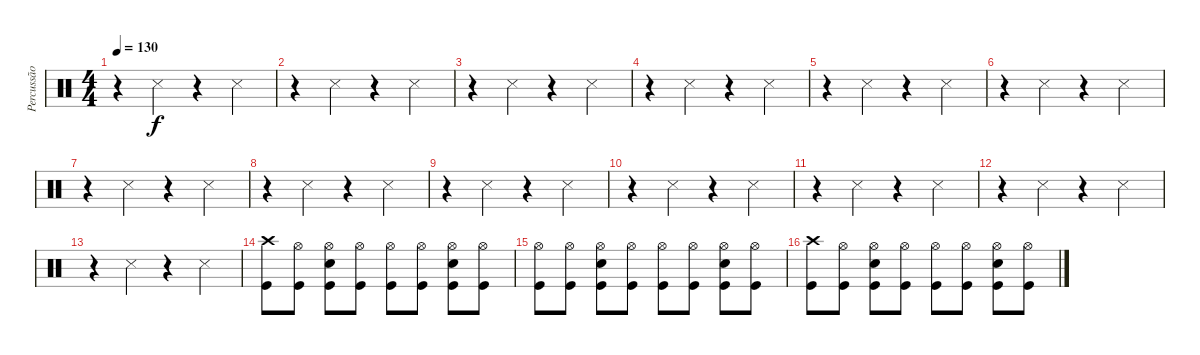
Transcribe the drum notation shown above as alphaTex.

\track ("Percussão" "Percussão") {instrument percussion}
\staff {score}
\articulation defaults
\ts (4 4)
\tempo 130
\clef neutral
\ks c
r.4{dy f} "Snare (side stick) 3".4 r.4 "Snare (side stick) 3".4 |
r.4 "Snare (side stick) 3".4 r.4 "Snare (side stick) 3".4 |
r.4 "Snare (side stick) 3".4 r.4 "Snare (side stick) 3".4 |
r.4 "Snare (side stick) 3".4 r.4 "Snare (side stick) 3".4 |
r.4 "Snare (side stick) 3".4 r.4 "Snare (side stick) 3".4 |
r.4 "Snare (side stick) 3".4 r.4 "Snare (side stick) 3".4 |
r.4 "Snare (side stick) 3".4 r.4 "Snare (side stick) 3".4 |
r.4 "Snare (side stick) 3".4 r.4 "Snare (side stick) 3".4 |
r.4 "Snare (side stick) 3".4 r.4 "Snare (side stick) 3".4 |
r.4 "Snare (side stick) 3".4 r.4 "Snare (side stick) 3".4 |
r.4 "Snare (side stick) 3".4 r.4 "Snare (side stick) 3".4 |
r.4 "Snare (side stick) 3".4 r.4 "Snare (side stick) 3".4 |
r.4 "Snare (side stick) 3".4 r.4 "Snare (side stick) 3".4 |
("Crash high (hit)" "Kick (hit)").8 ("Hi-Hat (open)" "Kick (hit)").8 ("Hi-Hat (open)" "Snare (hit) 2" "Kick (hit)").8 ("Hi-Hat (open)" "Kick (hit)").8 ("Hi-Hat (open)" "Kick (hit)").8 ("Hi-Hat (open)" "Kick (hit)").8 ("Hi-Hat (open)" "Snare (hit) 2" "Kick (hit)").8 ("Hi-Hat (open)" "Kick (hit)").8 |
("Hi-Hat (open)" "Kick (hit)").8 ("Hi-Hat (open)" "Kick (hit)").8 ("Hi-Hat (open)" "Snare (hit) 2" "Kick (hit)").8 ("Hi-Hat (open)" "Kick (hit)").8 ("Hi-Hat (open)" "Kick (hit)").8 ("Hi-Hat (open)" "Kick (hit)").8 ("Hi-Hat (open)" "Snare (hit) 2" "Kick (hit)").8 ("Hi-Hat (open)" "Kick (hit)").8 |
("Crash high (hit)" "Kick (hit)").8 ("Hi-Hat (open)" "Kick (hit)").8 ("Hi-Hat (open)" "Snare (hit) 2" "Kick (hit)").8 ("Hi-Hat (open)" "Kick (hit)").8 ("Hi-Hat (open)" "Kick (hit)").8 ("Hi-Hat (open)" "Kick (hit)").8 ("Hi-Hat (open)" "Snare (hit) 2" "Kick (hit)").8 ("Hi-Hat (open)" "Kick (hit)").8
